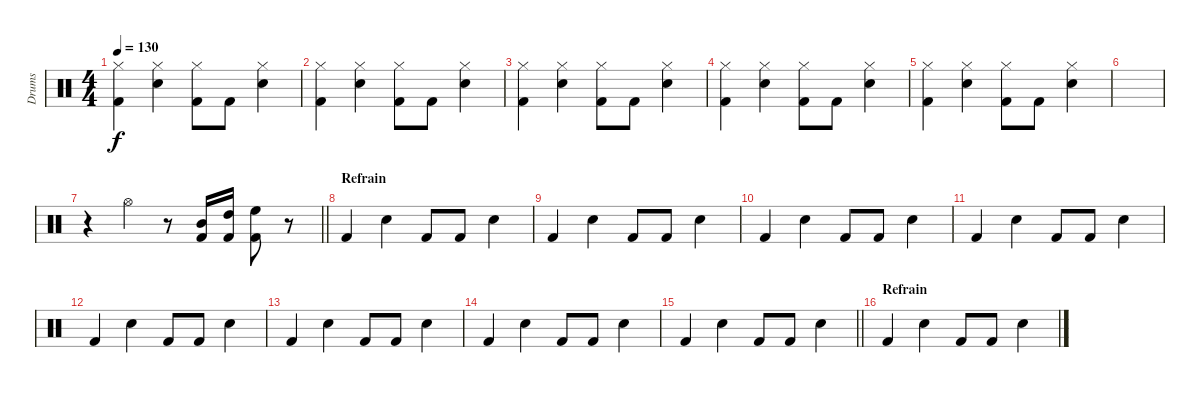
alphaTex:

\track ("Drums" "Drums") {instrument percussion}
\staff {score}
\articulation defaults
\ts (4 4)
\tempo 130
\clef neutral
\ks c
("Hi-Hat (closed)" "Kick (hit) 2").4{dy f} ("Hi-Hat (closed)" "Snare (hit) 2").4 ("Hi-Hat (closed)" "Kick (hit) 2").8 "Kick (hit) 2".8 ("Hi-Hat (closed)" "Snare (hit) 2").4 |
("Hi-Hat (closed)" "Kick (hit) 2").4 ("Hi-Hat (closed)" "Snare (hit) 2").4 ("Hi-Hat (closed)" "Kick (hit) 2").8 "Kick (hit) 2".8 ("Hi-Hat (closed)" "Snare (hit) 2").4 |
("Hi-Hat (closed)" "Kick (hit) 2").4 ("Hi-Hat (closed)" "Snare (hit) 2").4 ("Hi-Hat (closed)" "Kick (hit) 2").8 "Kick (hit) 2".8 ("Hi-Hat (closed)" "Snare (hit) 2").4 |
("Hi-Hat (closed)" "Kick (hit) 2").4 ("Hi-Hat (closed)" "Snare (hit) 2").4 ("Hi-Hat (closed)" "Kick (hit) 2").8 "Kick (hit) 2".8 ("Hi-Hat (closed)" "Snare (hit) 2").4 |
("Hi-Hat (closed)" "Kick (hit) 2").4 ("Hi-Hat (closed)" "Snare (hit) 2").4 ("Hi-Hat (closed)" "Kick (hit) 2").8 "Kick (hit) 2".8 ("Hi-Hat (closed)" "Snare (hit) 2").4 |
|
\barLineRight lightlight
r.4 "Hi-Hat (open)".4 r.8 ("Mid Tom (hit)" "Kick (hit) 2").16 ("High Tom (hit)" "Kick (hit) 2").16 ("High Floor Tom (hit)" "Kick (hit) 2").8 r.8 |
\section ("" "Refrain")
"Kick (hit) 2".4 "Snare (hit) 2".4 "Kick (hit) 2".8 "Kick (hit) 2".8 "Snare (hit) 2".4 |
"Kick (hit) 2".4 "Snare (hit) 2".4 "Kick (hit) 2".8 "Kick (hit) 2".8 "Snare (hit) 2".4 |
"Kick (hit) 2".4 "Snare (hit) 2".4 "Kick (hit) 2".8 "Kick (hit) 2".8 "Snare (hit) 2".4 |
"Kick (hit) 2".4 "Snare (hit) 2".4 "Kick (hit) 2".8 "Kick (hit) 2".8 "Snare (hit) 2".4 |
"Kick (hit) 2".4 "Snare (hit) 2".4 "Kick (hit) 2".8 "Kick (hit) 2".8 "Snare (hit) 2".4 |
"Kick (hit) 2".4 "Snare (hit) 2".4 "Kick (hit) 2".8 "Kick (hit) 2".8 "Snare (hit) 2".4 |
"Kick (hit) 2".4 "Snare (hit) 2".4 "Kick (hit) 2".8 "Kick (hit) 2".8 "Snare (hit) 2".4 |
\barLineRight lightlight "Kick (hit) 2".4 "Snare (hit) 2".4 "Kick (hit) 2".8 "Kick (hit) 2".8 "Snare (hit) 2".4
|
\section ("" "Refrain")
"Kick (hit) 2".4 "Snare (hit) 2".4 "Kick (hit) 2".8 "Kick (hit) 2".8 "Snare (hit) 2".4
